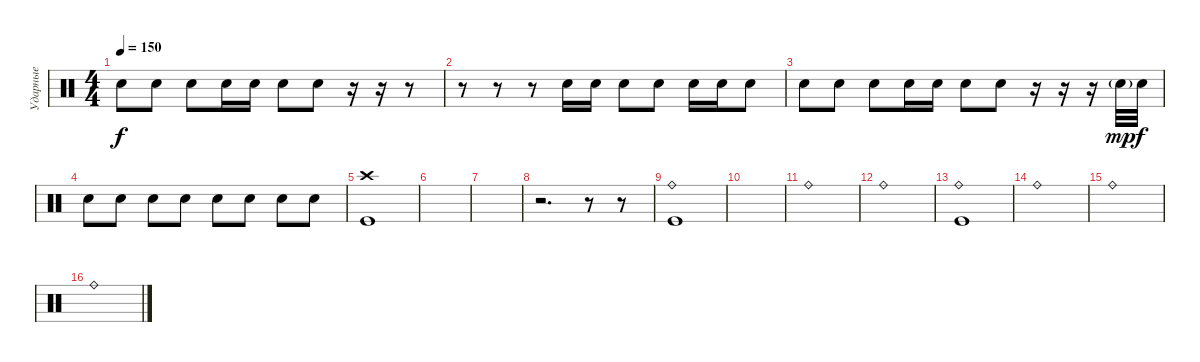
\track ("Ударные" "Ударные") {instrument percussion}
\staff {score}
\articulation defaults
\ts (4 4)
\tempo 150
\clef neutral
\ks c "Electric Snare (hit)".8{dy f} "Electric Snare (hit)".8 "Electric Snare (hit)".8 "Electric Snare (hit)".16 "Electric Snare (hit)".16 "Electric Snare (hit)".8 "Electric Snare (hit)".8
r.16 r.16 r.8 |
r.8 r.8 r.8 "Electric Snare (hit)".16 "Electric Snare (hit)".16 "Electric Snare (hit)".8 "Electric Snare (hit)".8 "Electric Snare (hit)".16 "Electric Snare (hit)".16 "Electric Snare (hit)".8 |
"Electric Snare (hit)".8 "Electric Snare (hit)".8 "Electric Snare (hit)".8 "Electric Snare (hit)".16 "Electric Snare (hit)".16 "Electric Snare (hit)".8 "Electric Snare (hit)".8 r.16 r.16 r.16 "Electric Snare (hit)"{g}.32{dy mp} "Electric Snare (hit)".32{dy f} |
"Electric Snare (hit)".8 "Electric Snare (hit)".8 "Electric Snare (hit)".8 "Electric Snare (hit)".8 "Electric Snare (hit)".8 "Electric Snare (hit)".8 "Electric Snare (hit)".8 "Electric Snare (hit)".8 |
("Crash high (hit)" "Kick (hit)").1 |
|
|
r.2{d} r.8 r.8 |
("Ride (bell)" "Kick (hit)").1 |
|
"Ride (bell)".1 |
"Ride (bell)".1 |
("Ride (bell)" "Kick (hit)").1 |
"Ride (bell)".1 |
"Ride (bell)".1 |
"Ride (bell)".1
